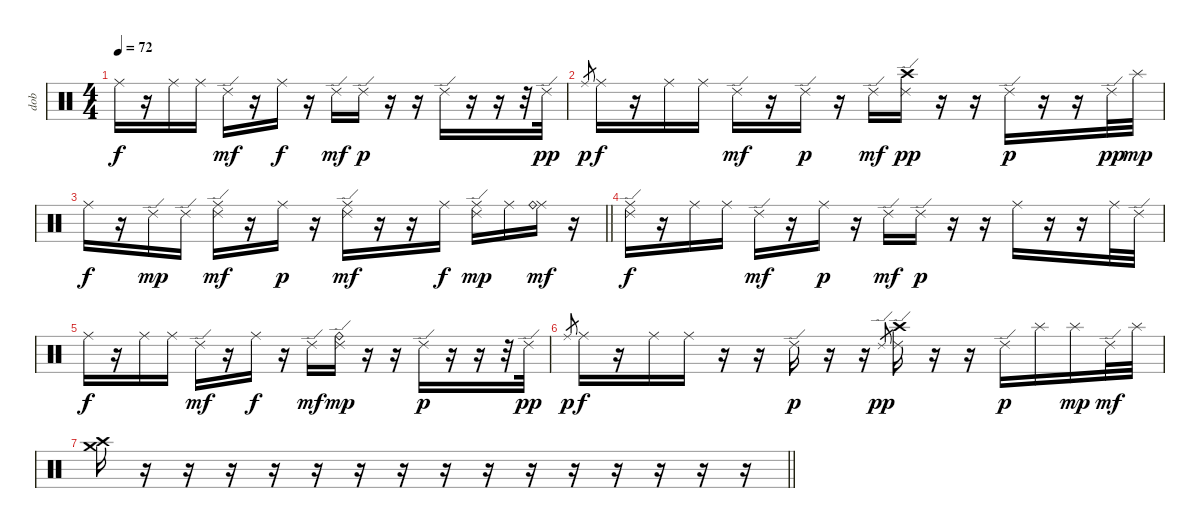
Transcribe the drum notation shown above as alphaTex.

\track ("dob" "dob") {instrument percussion}
\staff {score}
\articulation defaults
\ts (4 4)
\tempo 72
\clef neutral
\ks c "Ride (middle)".16{dy f}
r.16 "Ride (middle)".16 "Ride (middle)".16 "Ride (edge) 2".16{dy mf} r.16 "Ride (middle)".16{dy f} r.16 "Ride (edge) 2".16{dy mf} "Ride (edge) 2".16{dy p} r.16 r.16 "Ride (edge) 2".16 r.16 r.16 r.32 "Ride (edge) 2".32{dy pp} |
"Ride (middle)".8{gr dy p} "Ride (middle)".16{dy f} r.16 "Ride (middle)".16 "Ride (middle)".16 "Ride (edge) 2".16{dy mf} r.16 "Ride (edge) 2".16{dy p} r.16 "Ride (edge) 2".16{dy mf} ("Ride (edge) 2" "Crash high (hit)").16{dy pp} r.16 r.16 "Ride (edge) 2".16{dy p} r.16 r.16 "Ride (edge) 2".32{dy pp} "Splash (hit)".32{dy mp} |
\barLineRight lightlight "Ride (middle)".16{dy f}
r.16 "Ride (edge) 2".16{dy mp} "Ride (edge) 2".16 ("Ride (middle)" "Ride (edge) 2").16{dy mf} r.16 "Ride (middle)".16{dy p} r.16 ("Ride (middle)" "Ride (edge) 2").16{dy mf} r.16 r.16 "Ride (middle)".16{dy f} ("Ride (edge) 2" "Ride (middle)").16{dy mp} "Ride (middle)".16 ("Ride (middle)" "Ride (bell)").16{dy mf} r.16 |
("Ride (middle)" "Ride (edge) 2").16{dy f} r.16 "Ride (middle)".16 "Ride (middle)".16 "Ride (edge) 2".16{dy mf} r.16 "Ride (middle)".16{dy p} r.16 "Ride (edge) 2".16{dy mf} "Ride (edge) 2".16{dy p} r.16 r.16 "Ride (middle)".16 r.16 r.16 "Ride (middle)".32 "Ride (edge) 2".32 |
"Ride (middle)".16{dy f} r.16 "Ride (middle)".16 "Ride (middle)".16 "Ride (edge) 2".16{dy mf} r.16 "Ride (middle)".16{dy f} r.16 "Ride (edge) 2".16{dy mf} ("Ride (edge) 2" "Ride (bell)").16{dy mp} r.16 r.16 "Ride (edge) 2".16{dy p} r.16 r.16 r.32 "Ride (edge) 2".32{dy pp} |
"Ride (middle)".8{gr dy p} "Ride (middle)".16{dy f} r.16 "Ride (middle)".16 "Ride (middle)".16 r.16 r.16 "Ride (edge) 2".16{dy p} r.16 r.16 "Ride (edge) 2".8{gr dy pp} ("Ride (edge) 2" "Crash high (hit)").16 r.16 r.16 "Ride (edge) 2".16{dy p} "Splash (hit)".16 "Splash (hit)".16{dy mp} "Ride (edge) 2".32{dy mf} "Splash (hit)".32 |
\barLineRight lightlight
("Crash medium (hit)" "Crash high (hit)").16 r.16 r.16 r.16 r.16 r.16 r.16 r.16 r.16 r.16 r.16 r.16 r.16 r.16 r.16 r.16
